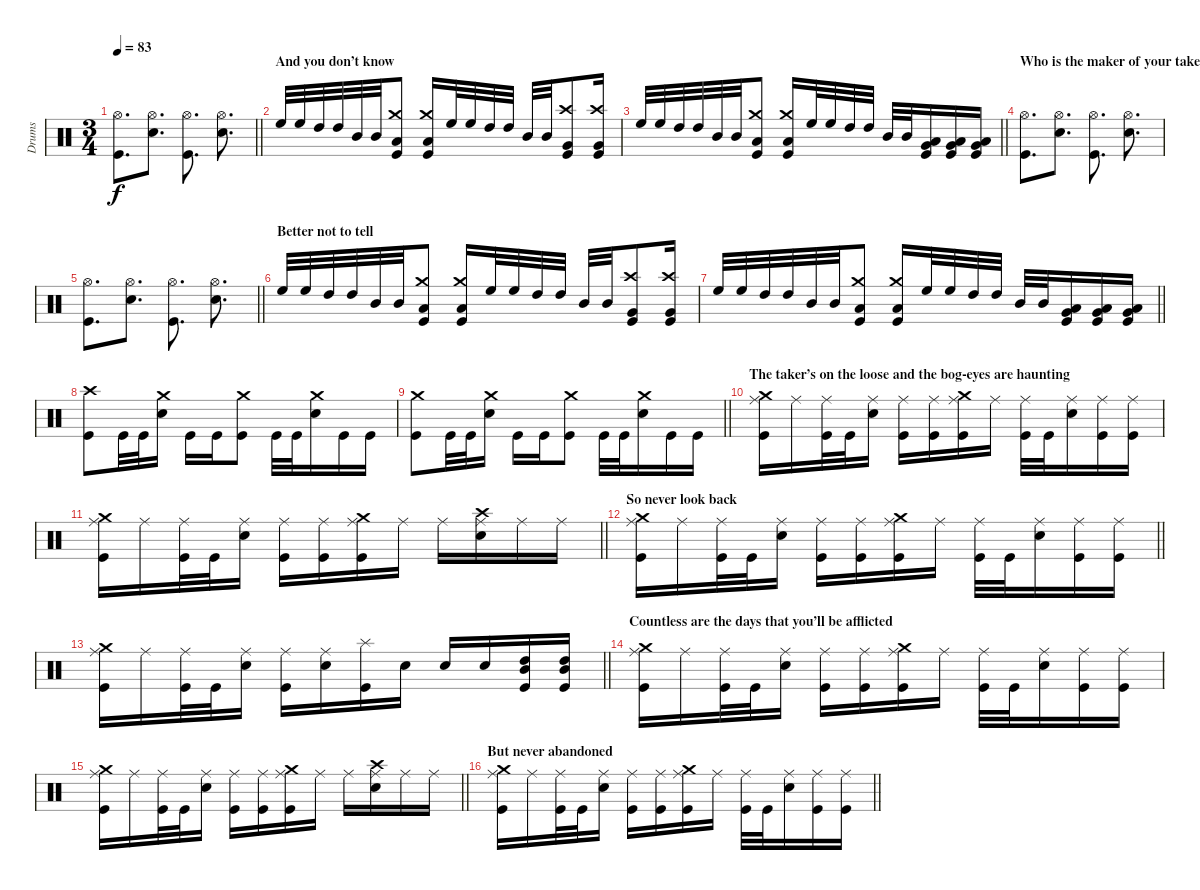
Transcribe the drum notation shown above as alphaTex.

\track ("Drums" "Drums") {instrument percussion}
\staff {score}
\articulation defaults
\ts (3 4)
\tempo 83
\clef neutral
\barLineRight lightlight
\ks c
("Hi-Hat (open)" "Kick (hit)").8{d dy f} ("Hi-Hat (open)" "Snare (hit) 2").8{d} ("Hi-Hat (open)" "Kick (hit)").8{d} ("Hi-Hat (open)" "Snare (hit) 2").8{d} |
\section ("" "And you don’t know")
"High Floor Tom (hit)".32 "High Floor Tom (hit)".32 "High Tom (hit)".32 "High Tom (hit)".32 "Mid Tom (hit)".32 "Mid Tom (hit)".32 ("Crash medium (hit)" "Low Tom (hit)" "Kick (hit)").8 ("Crash medium (hit)" "Low Tom (hit)" "Kick (hit)").16 "High Floor Tom (hit)".32 "High Floor Tom (hit)".32 "High Tom (hit)".32 "High Tom (hit)".32 "Mid Tom (hit)".32 "Mid Tom (hit)".32 ("Crash high (hit)" "Very Low Tom (hit)" "Kick (hit)").8 ("Crash high (hit)" "Very Low Tom (hit)" "Kick (hit)").16 |
\barLineRight lightlight "High Floor Tom (hit)".32 "High Floor Tom (hit)".32 "High Tom (hit)".32 "High Tom (hit)".32 "Mid Tom (hit)".32 "Mid Tom (hit)".32
("Crash medium (hit)" "Low Tom (hit)" "Kick (hit)").8 ("Crash medium (hit)" "Low Tom (hit)" "Kick (hit)").16 "High Floor Tom (hit)".32 "High Floor Tom (hit)".32 "High Tom (hit)".32 "High Tom (hit)".32 "Mid Tom (hit)".32 "Mid Tom (hit)".32 ("Low Tom (hit)" "Very Low Tom (hit)" "Kick (hit)").16 ("Low Tom (hit)" "Very Low Tom (hit)" "Kick (hit)").16 ("Low Tom (hit)" "Very Low Tom (hit)" "Kick (hit)").16 |
\section ("" "Who is the maker of your taker?")
("Hi-Hat (open)" "Kick (hit)").8{d} ("Hi-Hat (open)" "Snare (hit) 2").8{d} ("Hi-Hat (open)" "Kick (hit)").8{d} ("Hi-Hat (open)" "Snare (hit) 2").8{d} |
\barLineRight lightlight
("Hi-Hat (open)" "Kick (hit)").8{d} ("Hi-Hat (open)" "Snare (hit) 2").8{d} ("Hi-Hat (open)" "Kick (hit)").8{d} ("Hi-Hat (open)" "Snare (hit) 2").8{d} |
\section ("" "Better not to tell")
"High Floor Tom (hit)".32 "High Floor Tom (hit)".32 "High Tom (hit)".32 "High Tom (hit)".32 "Mid Tom (hit)".32 "Mid Tom (hit)".32 ("Crash medium (hit)" "Low Tom (hit)" "Kick (hit)").8 ("Crash medium (hit)" "Low Tom (hit)" "Kick (hit)").16 "High Floor Tom (hit)".32 "High Floor Tom (hit)".32 "High Tom (hit)".32 "High Tom (hit)".32 "Mid Tom (hit)".32 "Mid Tom (hit)".32 ("Crash high (hit)" "Very Low Tom (hit)" "Kick (hit)").8 ("Crash high (hit)" "Very Low Tom (hit)" "Kick (hit)").16 |
\barLineRight lightlight "High Floor Tom (hit)".32 "High Floor Tom (hit)".32 "High Tom (hit)".32 "High Tom (hit)".32 "Mid Tom (hit)".32 "Mid Tom (hit)".32
("Crash medium (hit)" "Low Tom (hit)" "Kick (hit)").8 ("Crash medium (hit)" "Low Tom (hit)" "Kick (hit)").16 "High Floor Tom (hit)".32 "High Floor Tom (hit)".32 "High Tom (hit)".32 "High Tom (hit)".32 "Mid Tom (hit)".32 "Mid Tom (hit)".32 ("Low Tom (hit)" "Very Low Tom (hit)" "Kick (hit)").16 ("Low Tom (hit)" "Very Low Tom (hit)" "Kick (hit)").16 ("Low Tom (hit)" "Very Low Tom (hit)" "Kick (hit)").16 |
("Crash high (hit)" "Kick (hit)").8 "Kick (hit)".32 "Kick (hit)".32 ("Crash medium (hit)" "Snare (hit) 2").16 "Kick (hit)".16 "Kick (hit)".16 ("Crash medium (hit)" "Kick (hit)").8 "Kick (hit)".32 "Kick (hit)".32 ("Crash medium (hit)" "Snare (hit) 2").16 "Kick (hit)".16 "Kick (hit)".16 |
\barLineRight lightlight
("Crash medium (hit)" "Kick (hit)").8 "Kick (hit)".32 "Kick (hit)".32 ("Crash medium (hit)" "Snare (hit) 2").16 "Kick (hit)".16 "Kick (hit)".16 ("Crash medium (hit)" "Kick (hit)").8 "Kick (hit)".32 "Kick (hit)".32 ("Crash medium (hit)" "Snare (hit) 2").16 "Kick (hit)".16 "Kick (hit)".16 |
\section ("" "The taker’s on the loose and the bog-eyes are haunting")
("Crash medium (hit)" "Ride (middle)" "Kick (hit)").16 "Ride (middle)".16 ("Ride (middle)" "Kick (hit)").32 "Kick (hit)".32 ("Ride (middle)" "Snare (hit) 2").16 ("Ride (middle)" "Kick (hit)").16 ("Ride (middle)" "Kick (hit)").16 ("Crash medium (hit)" "Ride (middle)" "Kick (hit)").16 "Ride (middle)".16 ("Ride (middle)" "Kick (hit)").32 "Kick (hit)".32 ("Ride (middle)" "Snare (hit) 2").16 ("Ride (middle)" "Kick (hit)").16 ("Ride (middle)" "Kick (hit)").16 |
\barLineRight lightlight
("Crash medium (hit)" "Ride (middle)" "Kick (hit)").16 "Ride (middle)".16 ("Ride (middle)" "Kick (hit)").32 "Kick (hit)".32 ("Ride (middle)" "Snare (hit) 2").16 ("Ride (middle)" "Kick (hit)").16 ("Ride (middle)" "Kick (hit)").16 ("Crash medium (hit)" "Ride (middle)" "Kick (hit)").16 "Ride (middle)".16 "Ride (middle)".16 ("Crash high (hit)" "Ride (middle)" "Snare (hit) 2").16 "Ride (middle)".16 "Ride (middle)".16 |
\section ("" "So never look back")
\barLineRight lightlight
("Crash medium (hit)" "Ride (middle)" "Kick (hit)").16 "Ride (middle)".16 ("Ride (middle)" "Kick (hit)").32 "Kick (hit)".32 ("Ride (middle)" "Snare (hit) 2").16 ("Ride (middle)" "Kick (hit)").16 ("Ride (middle)" "Kick (hit)").16 ("Crash medium (hit)" "Ride (middle)" "Kick (hit)").16 "Ride (middle)".16 ("Ride (middle)" "Kick (hit)").32 "Kick (hit)".32 ("Ride (middle)" "Snare (hit) 2").16 ("Ride (middle)" "Kick (hit)").16 ("Ride (middle)" "Kick (hit)").16 |
\barLineRight lightlight
("Crash medium (hit)" "Ride (middle)" "Kick (hit)").16 "Ride (middle)".16 ("Ride (middle)" "Kick (hit)").32 "Kick (hit)".32 ("Ride (middle)" "Snare (hit) 2").16 ("Ride (middle)" "Kick (hit)").16 ("Ride (middle)" "Snare (hit) 2").16 ("Splash (hit)" "Kick (hit)").16 "Snare (hit) 2".16 "Snare (hit) 2".16 "Snare (hit) 2".16 ("High Tom (hit)" "Mid Tom (hit)" "Kick (hit)").16 ("High Tom (hit)" "Mid Tom (hit)" "Kick (hit)").16 |
\section ("" "Countless are the days that you’ll be afflicted")
("Crash medium (hit)" "Ride (middle)" "Kick (hit)").16 "Ride (middle)".16 ("Ride (middle)" "Kick (hit)").32 "Kick (hit)".32 ("Ride (middle)" "Snare (hit) 2").16 ("Ride (middle)" "Kick (hit)").16 ("Ride (middle)" "Kick (hit)").16 ("Crash medium (hit)" "Ride (middle)" "Kick (hit)").16 "Ride (middle)".16 ("Ride (middle)" "Kick (hit)").32 "Kick (hit)".32 ("Ride (middle)" "Snare (hit) 2").16 ("Ride (middle)" "Kick (hit)").16 ("Ride (middle)" "Kick (hit)").16 |
\barLineRight lightlight
("Crash medium (hit)" "Ride (middle)" "Kick (hit)").16 "Ride (middle)".16 ("Ride (middle)" "Kick (hit)").32 "Kick (hit)".32 ("Ride (middle)" "Snare (hit) 2").16 ("Ride (middle)" "Kick (hit)").16 ("Ride (middle)" "Kick (hit)").16 ("Crash medium (hit)" "Ride (middle)" "Kick (hit)").16 "Ride (middle)".16 "Ride (middle)".16 ("Crash high (hit)" "Ride (middle)" "Snare (hit) 2").16 "Ride (middle)".16 "Ride (middle)".16 |
\section ("" "But never abandoned")
\barLineRight lightlight
("Crash medium (hit)" "Ride (middle)" "Kick (hit)").16 "Ride (middle)".16 ("Ride (middle)" "Kick (hit)").32 "Kick (hit)".32 ("Ride (middle)" "Snare (hit) 2").16 ("Ride (middle)" "Kick (hit)").16 ("Ride (middle)" "Kick (hit)").16 ("Crash medium (hit)" "Ride (middle)" "Kick (hit)").16 "Ride (middle)".16 ("Ride (middle)" "Kick (hit)").32 "Kick (hit)".32 ("Ride (middle)" "Snare (hit) 2").16 ("Ride (middle)" "Kick (hit)").16 ("Ride (middle)" "Kick (hit)").16
